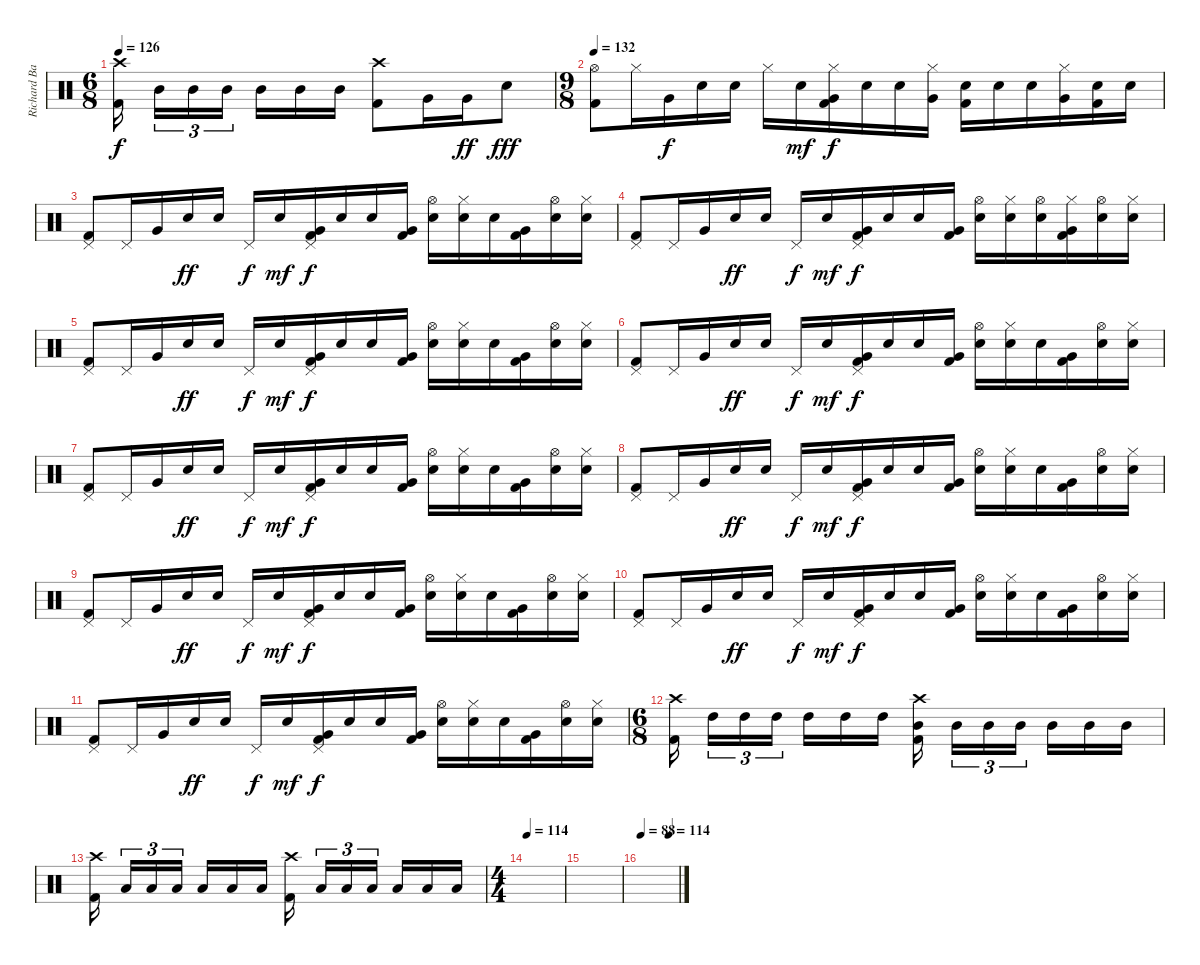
\track ("Richard Bailey" "Richard Ba") {instrument percussion}
\staff {score}
\articulation defaults
\ts (6 8)
\tempo 126
\clef neutral
\ks c
("Crash high (hit)" "Kick (hit) 2").16{dy f} "Mid Tom (hit)".16{tu (3 2)} "Mid Tom (hit)".16{tu (3 2)} "Mid Tom (hit)".16{tu (3 2)} "Mid Tom (hit)".16 "Mid Tom (hit)".16 "Mid Tom (hit)".16 ("Crash high (hit)" "Kick (hit) 2").8 "Very Low Tom (hit)".16 "Very Low Tom (hit)".16{dy ff} "Electric Snare (hit)".8{dy fff} |
\ts (9 8)
\tempo 132
("Hi-Hat (open)" "Kick (hit) 2").8 "Hi-Hat (closed)".16 "Very Low Tom (hit)".16{dy f} "Electric Snare (hit)".16 "Electric Snare (hit)".16 "Hi-Hat (closed)".16 "Snare (hit) 2".16{dy mf} ("Hi-Hat (closed)" "Very Low Tom (hit)" "Kick (hit) 2").16{dy f} "Snare (hit) 2".16 "Snare (hit) 2".16 ("Hi-Hat (closed)" "Very Low Tom (hit)").16 ("Snare (hit) 2" "Kick (hit) 2").16 "Snare (hit) 2".16 "Snare (hit) 2".16 ("Hi-Hat (closed)" "Very Low Tom (hit)").16 ("Electric Snare (hit)" "Kick (hit) 2").16 "Electric Snare (hit)".16 |
("Pedal Hi-Hat (hit)" "Kick (hit) 2").8 "Pedal Hi-Hat (hit)".16 "Very Low Tom (hit)".16 "Electric Snare (hit)".16{dy ff} "Electric Snare (hit)".16 "Pedal Hi-Hat (hit)".16{dy f} "Snare (hit) 2".16{dy mf} ("Pedal Hi-Hat (hit)" "Very Low Tom (hit)" "Kick (hit) 2").16{dy f} "Snare (hit) 2".16 "Snare (hit) 2".16 ("Very Low Tom (hit)" "Kick (hit) 2").16 ("Hi-Hat (open)" "Snare (hit) 2").16 ("Hi-Hat (closed)" "Snare (hit) 2").16 "Snare (hit) 2".16 ("Very Low Tom (hit)" "Kick (hit) 2").16 ("Hi-Hat (open)" "Electric Snare (hit)").16 ("Hi-Hat (closed)" "Electric Snare (hit)").16 |
("Pedal Hi-Hat (hit)" "Kick (hit) 2").8 "Pedal Hi-Hat (hit)".16 "Very Low Tom (hit)".16 "Electric Snare (hit)".16{dy ff} "Electric Snare (hit)".16 "Pedal Hi-Hat (hit)".16{dy f} "Snare (hit) 2".16{dy mf} ("Pedal Hi-Hat (hit)" "Very Low Tom (hit)" "Kick (hit) 2").16{dy f} "Snare (hit) 2".16 "Snare (hit) 2".16 ("Very Low Tom (hit)" "Kick (hit) 2").16 ("Hi-Hat (open)" "Snare (hit) 2").16 ("Hi-Hat (closed)" "Snare (hit) 2").16 ("Hi-Hat (open)" "Snare (hit) 2").16 ("Hi-Hat (closed)" "Very Low Tom (hit)" "Kick (hit) 2").16 ("Hi-Hat (open)" "Electric Snare (hit)").16 ("Hi-Hat (closed)" "Electric Snare (hit)").16 |
("Pedal Hi-Hat (hit)" "Kick (hit) 2").8 "Pedal Hi-Hat (hit)".16 "Very Low Tom (hit)".16 "Electric Snare (hit)".16{dy ff} "Electric Snare (hit)".16 "Pedal Hi-Hat (hit)".16{dy f} "Snare (hit) 2".16{dy mf} ("Pedal Hi-Hat (hit)" "Very Low Tom (hit)" "Kick (hit) 2").16{dy f} "Snare (hit) 2".16 "Snare (hit) 2".16 ("Very Low Tom (hit)" "Kick (hit) 2").16 ("Hi-Hat (open)" "Snare (hit) 2").16 ("Hi-Hat (closed)" "Snare (hit) 2").16 "Snare (hit) 2".16 ("Very Low Tom (hit)" "Kick (hit) 2").16 ("Hi-Hat (open)" "Electric Snare (hit)").16 ("Hi-Hat (closed)" "Electric Snare (hit)").16 |
("Pedal Hi-Hat (hit)" "Kick (hit) 2").8 "Pedal Hi-Hat (hit)".16 "Very Low Tom (hit)".16 "Electric Snare (hit)".16{dy ff} "Electric Snare (hit)".16 "Pedal Hi-Hat (hit)".16{dy f} "Snare (hit) 2".16{dy mf} ("Pedal Hi-Hat (hit)" "Very Low Tom (hit)" "Kick (hit) 2").16{dy f} "Snare (hit) 2".16 "Snare (hit) 2".16 ("Very Low Tom (hit)" "Kick (hit) 2").16 ("Hi-Hat (open)" "Snare (hit) 2").16 ("Hi-Hat (closed)" "Snare (hit) 2").16 "Snare (hit) 2".16 ("Very Low Tom (hit)" "Kick (hit) 2").16 ("Hi-Hat (open)" "Electric Snare (hit)").16 ("Hi-Hat (closed)" "Electric Snare (hit)").16 |
("Pedal Hi-Hat (hit)" "Kick (hit) 2").8 "Pedal Hi-Hat (hit)".16 "Very Low Tom (hit)".16 "Electric Snare (hit)".16{dy ff} "Electric Snare (hit)".16 "Pedal Hi-Hat (hit)".16{dy f} "Snare (hit) 2".16{dy mf} ("Pedal Hi-Hat (hit)" "Very Low Tom (hit)" "Kick (hit) 2").16{dy f} "Snare (hit) 2".16 "Snare (hit) 2".16 ("Very Low Tom (hit)" "Kick (hit) 2").16 ("Hi-Hat (open)" "Snare (hit) 2").16 ("Hi-Hat (closed)" "Snare (hit) 2").16 "Snare (hit) 2".16 ("Very Low Tom (hit)" "Kick (hit) 2").16 ("Hi-Hat (open)" "Electric Snare (hit)").16 ("Hi-Hat (closed)" "Electric Snare (hit)").16 |
("Pedal Hi-Hat (hit)" "Kick (hit) 2").8 "Pedal Hi-Hat (hit)".16 "Very Low Tom (hit)".16 "Electric Snare (hit)".16{dy ff} "Electric Snare (hit)".16 "Pedal Hi-Hat (hit)".16{dy f} "Snare (hit) 2".16{dy mf} ("Pedal Hi-Hat (hit)" "Very Low Tom (hit)" "Kick (hit) 2").16{dy f} "Snare (hit) 2".16 "Snare (hit) 2".16 ("Very Low Tom (hit)" "Kick (hit) 2").16 ("Hi-Hat (open)" "Snare (hit) 2").16 ("Hi-Hat (closed)" "Snare (hit) 2").16 "Snare (hit) 2".16 ("Very Low Tom (hit)" "Kick (hit) 2").16 ("Hi-Hat (open)" "Electric Snare (hit)").16 ("Hi-Hat (closed)" "Electric Snare (hit)").16 |
("Pedal Hi-Hat (hit)" "Kick (hit) 2").8 "Pedal Hi-Hat (hit)".16 "Very Low Tom (hit)".16 "Electric Snare (hit)".16{dy ff} "Electric Snare (hit)".16 "Pedal Hi-Hat (hit)".16{dy f} "Snare (hit) 2".16{dy mf} ("Pedal Hi-Hat (hit)" "Very Low Tom (hit)" "Kick (hit) 2").16{dy f} "Snare (hit) 2".16 "Snare (hit) 2".16 ("Very Low Tom (hit)" "Kick (hit) 2").16 ("Hi-Hat (open)" "Snare (hit) 2").16 ("Hi-Hat (closed)" "Snare (hit) 2").16 "Snare (hit) 2".16 ("Very Low Tom (hit)" "Kick (hit) 2").16 ("Hi-Hat (open)" "Electric Snare (hit)").16 ("Hi-Hat (closed)" "Electric Snare (hit)").16 |
("Pedal Hi-Hat (hit)" "Kick (hit) 2").8 "Pedal Hi-Hat (hit)".16 "Very Low Tom (hit)".16 "Electric Snare (hit)".16{dy ff} "Electric Snare (hit)".16 "Pedal Hi-Hat (hit)".16{dy f} "Snare (hit) 2".16{dy mf} ("Pedal Hi-Hat (hit)" "Very Low Tom (hit)" "Kick (hit) 2").16{dy f} "Snare (hit) 2".16 "Snare (hit) 2".16 ("Very Low Tom (hit)" "Kick (hit) 2").16 ("Hi-Hat (open)" "Snare (hit) 2").16 ("Hi-Hat (closed)" "Snare (hit) 2").16 "Snare (hit) 2".16 ("Very Low Tom (hit)" "Kick (hit) 2").16 ("Hi-Hat (open)" "Electric Snare (hit)").16 ("Hi-Hat (closed)" "Electric Snare (hit)").16 |
("Pedal Hi-Hat (hit)" "Kick (hit) 2").8 "Pedal Hi-Hat (hit)".16 "Very Low Tom (hit)".16 "Electric Snare (hit)".16{dy ff} "Electric Snare (hit)".16 "Pedal Hi-Hat (hit)".16{dy f} "Snare (hit) 2".16{dy mf} ("Pedal Hi-Hat (hit)" "Very Low Tom (hit)" "Kick (hit) 2").16{dy f} "Snare (hit) 2".16 "Snare (hit) 2".16 ("Very Low Tom (hit)" "Kick (hit) 2").16 ("Hi-Hat (open)" "Snare (hit) 2").16 ("Hi-Hat (closed)" "Snare (hit) 2").16 "Snare (hit) 2".16 ("Very Low Tom (hit)" "Kick (hit) 2").16 ("Hi-Hat (open)" "Electric Snare (hit)").16 ("Hi-Hat (closed)" "Electric Snare (hit)").16 |
\ts (6 8)
("Crash high (hit)" "Kick (hit) 2").16 "High Tom (hit)".16{tu (3 2)} "High Tom (hit)".16{tu (3 2)} "High Tom (hit)".16{tu (3 2)} "High Tom (hit)".16 "High Tom (hit)".16 "High Tom (hit)".16 ("Crash high (hit)" "Mid Tom (hit)" "Kick (hit) 2").16 "Mid Tom (hit)".16{tu (3 2)} "Mid Tom (hit)".16{tu (3 2)} "Mid Tom (hit)".16{tu (3 2)} "Mid Tom (hit)".16 "Mid Tom (hit)".16 "Mid Tom (hit)".16 |
("Crash high (hit)" "Kick (hit) 2").16 "Low Tom (hit)".16{tu (3 2)} "Low Tom (hit)".16{tu (3 2)} "Low Tom (hit)".16{tu (3 2)} "Low Tom (hit)".16 "Low Tom (hit)".16 "Low Tom (hit)".16 ("Crash high (hit)" "Kick (hit) 2").16 "Low Floor Tom (hit)".16{tu (3 2)} "Low Floor Tom (hit)".16{tu (3 2)} "Low Floor Tom (hit)".16{tu (3 2)} "Low Floor Tom (hit)".16 "Low Floor Tom (hit)".16 "Low Floor Tom (hit)".16 |
\ts (4 4)
\tempo 114
|
|
\tempo 88
\tempo (114 0.75)
